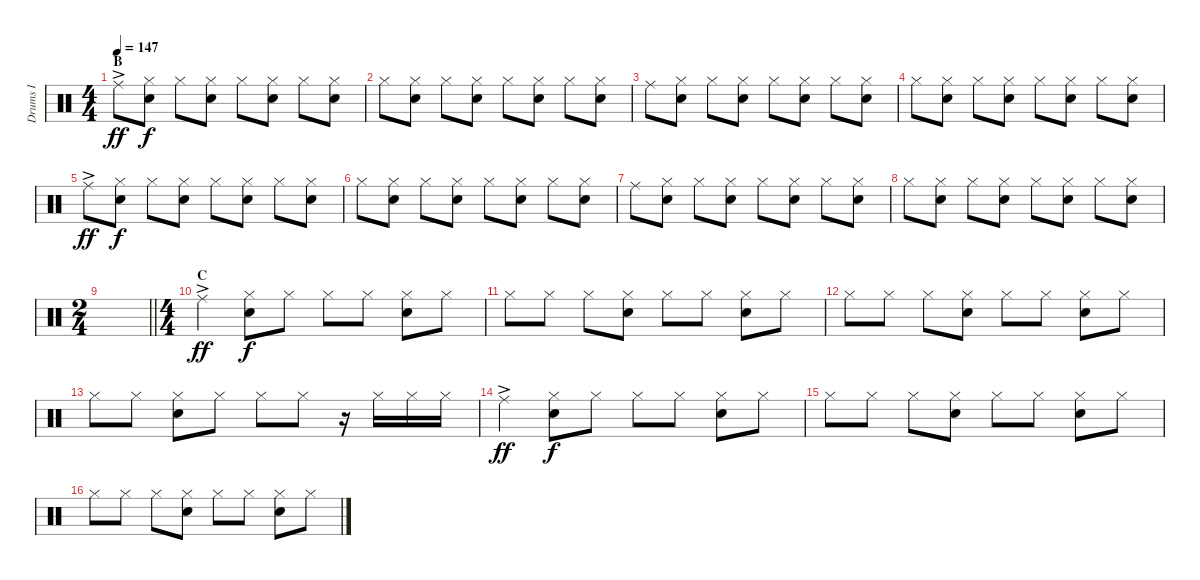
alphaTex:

\track ("Drums I" "Drums I") {instrument percussion}
\staff {score}
\articulation defaults
\ts (4 4)
\section ("" "B")
\tempo 147
\clef neutral
\ks c "Ride (middle)"{ac}.8{dy ff}
("Hi-Hat (closed)" "Snare (hit) 2").8{dy f} "Hi-Hat (closed)".8 ("Hi-Hat (closed)" "Snare (hit) 2").8 "Hi-Hat (closed)".8 ("Hi-Hat (closed)" "Snare (hit) 2").8 "Hi-Hat (closed)".8 ("Hi-Hat (closed)" "Snare (hit) 2").8 |
"Hi-Hat (closed)".8 ("Hi-Hat (closed)" "Snare (hit) 2").8 "Hi-Hat (closed)".8 ("Hi-Hat (closed)" "Snare (hit) 2").8 "Hi-Hat (closed)".8 ("Hi-Hat (closed)" "Snare (hit) 2").8 "Hi-Hat (closed)".8 ("Hi-Hat (closed)" "Snare (hit) 2").8 |
"Ride (middle)".8 ("Hi-Hat (closed)" "Snare (hit) 2").8 "Hi-Hat (closed)".8 ("Hi-Hat (closed)" "Snare (hit) 2").8 "Hi-Hat (closed)".8 ("Hi-Hat (closed)" "Snare (hit) 2").8 "Hi-Hat (closed)".8 ("Hi-Hat (closed)" "Snare (hit) 2").8 |
"Hi-Hat (closed)".8 ("Hi-Hat (closed)" "Snare (hit) 2").8 "Hi-Hat (closed)".8 ("Hi-Hat (closed)" "Snare (hit) 2").8 "Hi-Hat (closed)".8 ("Hi-Hat (closed)" "Snare (hit) 2").8 "Hi-Hat (closed)".8 ("Hi-Hat (closed)" "Snare (hit) 2").8 |
"Ride (middle)"{ac}.8{dy ff} ("Hi-Hat (closed)" "Snare (hit) 2").8{dy f} "Hi-Hat (closed)".8 ("Hi-Hat (closed)" "Snare (hit) 2").8 "Hi-Hat (closed)".8 ("Hi-Hat (closed)" "Snare (hit) 2").8 "Hi-Hat (closed)".8 ("Hi-Hat (closed)" "Snare (hit) 2").8 |
"Hi-Hat (closed)".8 ("Hi-Hat (closed)" "Snare (hit) 2").8 "Hi-Hat (closed)".8 ("Hi-Hat (closed)" "Snare (hit) 2").8 "Hi-Hat (closed)".8 ("Hi-Hat (closed)" "Snare (hit) 2").8 "Hi-Hat (closed)".8 ("Hi-Hat (closed)" "Snare (hit) 2").8 |
"Ride (middle)".8 ("Hi-Hat (closed)" "Snare (hit) 2").8 "Hi-Hat (closed)".8 ("Hi-Hat (closed)" "Snare (hit) 2").8 "Hi-Hat (closed)".8 ("Hi-Hat (closed)" "Snare (hit) 2").8 "Hi-Hat (closed)".8 ("Hi-Hat (closed)" "Snare (hit) 2").8 |
"Hi-Hat (closed)".8 ("Hi-Hat (closed)" "Snare (hit) 2").8 "Hi-Hat (closed)".8 ("Hi-Hat (closed)" "Snare (hit) 2").8 "Hi-Hat (closed)".8 ("Hi-Hat (closed)" "Snare (hit) 2").8 "Hi-Hat (closed)".8 ("Hi-Hat (closed)" "Snare (hit) 2").8 |
\ts (2 4)
\barLineRight lightlight
|
\ts (4 4)
\section ("" "C")
"Ride (middle)"{ac}.4{dy ff} ("Hi-Hat (closed)" "Snare (hit) 2").8{dy f} "Hi-Hat (closed)".8 "Hi-Hat (closed)".8 "Hi-Hat (closed)".8 ("Hi-Hat (closed)" "Snare (hit) 2").8 "Hi-Hat (closed)".8 |
"Hi-Hat (closed)".8 "Hi-Hat (closed)".8 "Hi-Hat (closed)".8 ("Hi-Hat (closed)" "Snare (hit) 2").8 "Hi-Hat (closed)".8 "Hi-Hat (closed)".8 ("Hi-Hat (closed)" "Snare (hit) 2").8 "Hi-Hat (closed)".8 |
"Hi-Hat (closed)".8 "Hi-Hat (closed)".8 "Hi-Hat (closed)".8 ("Hi-Hat (closed)" "Snare (hit) 2").8 "Hi-Hat (closed)".8 "Hi-Hat (closed)".8 ("Hi-Hat (closed)" "Snare (hit) 2").8 "Hi-Hat (closed)".8 |
"Hi-Hat (closed)".8 "Hi-Hat (closed)".8 ("Hi-Hat (closed)" "Snare (hit) 2").8 "Hi-Hat (closed)".8 "Hi-Hat (closed)".8 "Hi-Hat (closed)".8 r.16 "Hi-Hat (closed)".16 "Hi-Hat (closed)".16 "Hi-Hat (closed)".16 |
"Ride (middle)"{ac}.4{dy ff} ("Hi-Hat (closed)" "Snare (hit) 2").8{dy f} "Hi-Hat (closed)".8 "Hi-Hat (closed)".8 "Hi-Hat (closed)".8 ("Hi-Hat (closed)" "Snare (hit) 2").8 "Hi-Hat (closed)".8 |
"Hi-Hat (closed)".8 "Hi-Hat (closed)".8 "Hi-Hat (closed)".8 ("Hi-Hat (closed)" "Snare (hit) 2").8 "Hi-Hat (closed)".8 "Hi-Hat (closed)".8 ("Hi-Hat (closed)" "Snare (hit) 2").8 "Hi-Hat (closed)".8 |
"Hi-Hat (closed)".8 "Hi-Hat (closed)".8 "Hi-Hat (closed)".8 ("Hi-Hat (closed)" "Snare (hit) 2").8 "Hi-Hat (closed)".8 "Hi-Hat (closed)".8 ("Hi-Hat (closed)" "Snare (hit) 2").8 "Hi-Hat (closed)".8
